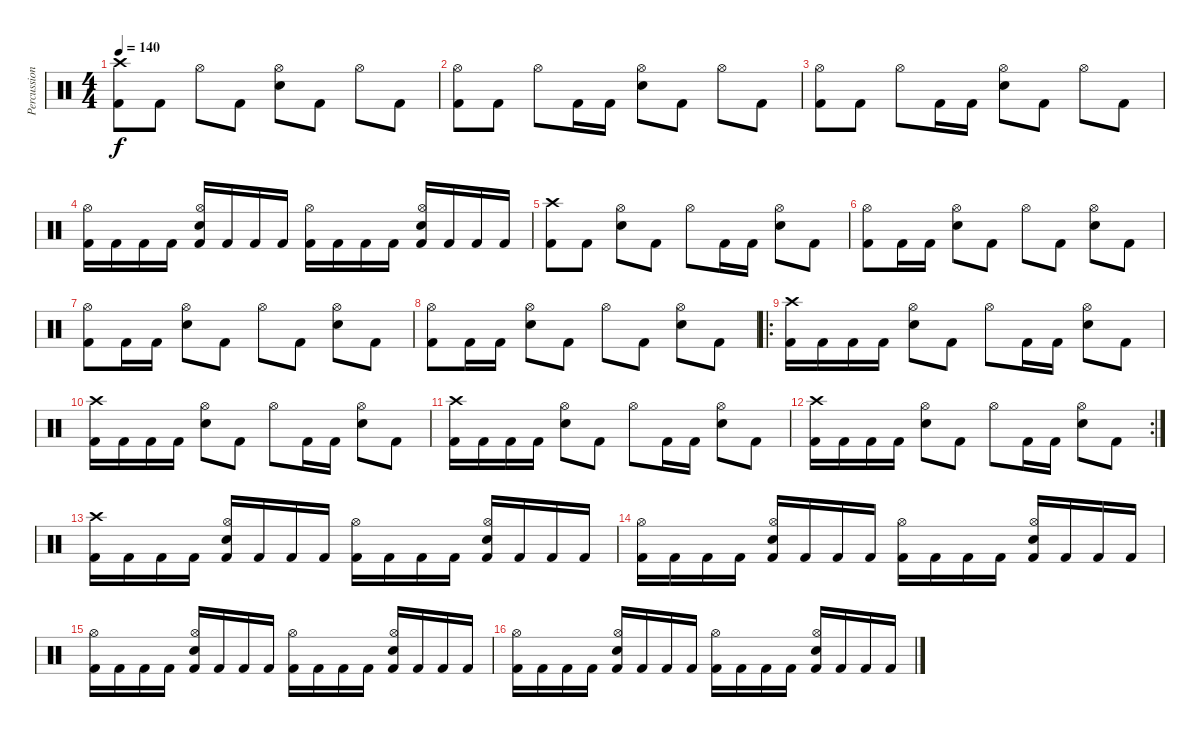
\track ("Percussion" "Percussion") {instrument percussion}
\staff {score}
\articulation defaults
\ts (4 4)
\tempo 140
\clef neutral
\ks c
("Crash high (hit)" "Kick (hit) 2").8{dy f} "Kick (hit) 2".8 "Hi-Hat (open)".8 "Kick (hit) 2".8 ("Hi-Hat (open)" "Electric Snare (hit)").8 "Kick (hit) 2".8 "Hi-Hat (open)".8 "Kick (hit) 2".8 |
("Hi-Hat (open)" "Kick (hit) 2").8 "Kick (hit) 2".8 "Hi-Hat (open)".8 "Kick (hit) 2".16 "Kick (hit) 2".16 ("Hi-Hat (open)" "Electric Snare (hit)").8 "Kick (hit) 2".8 "Hi-Hat (open)".8 "Kick (hit) 2".8 |
("Hi-Hat (open)" "Kick (hit) 2").8 "Kick (hit) 2".8 "Hi-Hat (open)".8 "Kick (hit) 2".16 "Kick (hit) 2".16 ("Hi-Hat (open)" "Electric Snare (hit)").8 "Kick (hit) 2".8 "Hi-Hat (open)".8 "Kick (hit) 2".8 |
("Hi-Hat (open)" "Kick (hit) 2").16 "Kick (hit) 2".16 "Kick (hit) 2".16 "Kick (hit) 2".16 ("Hi-Hat (open)" "Electric Snare (hit)" "Kick (hit) 2").16 "Kick (hit) 2".16 "Kick (hit) 2".16 "Kick (hit) 2".16 ("Hi-Hat (open)" "Kick (hit) 2").16 "Kick (hit) 2".16 "Kick (hit) 2".16 "Kick (hit) 2".16 ("Hi-Hat (open)" "Electric Snare (hit)" "Kick (hit) 2").16 "Kick (hit) 2".16 "Kick (hit) 2".16 "Kick (hit) 2".16 |
("Crash high (hit)" "Kick (hit) 2").8 "Kick (hit) 2".8 ("Hi-Hat (open)" "Electric Snare (hit)").8 "Kick (hit) 2".8 "Hi-Hat (open)".8 "Kick (hit) 2".16 "Kick (hit) 2".16 ("Hi-Hat (open)" "Electric Snare (hit)").8 "Kick (hit) 2".8 |
("Hi-Hat (open)" "Kick (hit) 2").8 "Kick (hit) 2".16 "Kick (hit) 2".16 ("Hi-Hat (open)" "Electric Snare (hit)").8 "Kick (hit) 2".8 "Hi-Hat (open)".8 "Kick (hit) 2".8 ("Hi-Hat (open)" "Electric Snare (hit)").8 "Kick (hit) 2".8 |
("Hi-Hat (open)" "Kick (hit) 2").8 "Kick (hit) 2".16 "Kick (hit) 2".16 ("Hi-Hat (open)" "Electric Snare (hit)").8 "Kick (hit) 2".8 "Hi-Hat (open)".8 "Kick (hit) 2".8 ("Hi-Hat (open)" "Electric Snare (hit)").8 "Kick (hit) 2".8 |
("Hi-Hat (open)" "Kick (hit) 2").8 "Kick (hit) 2".16 "Kick (hit) 2".16 ("Hi-Hat (open)" "Electric Snare (hit)").8 "Kick (hit) 2".8 "Hi-Hat (open)".8 "Kick (hit) 2".8 ("Hi-Hat (open)" "Electric Snare (hit)").8 "Kick (hit) 2".8 |
\ro
("Crash high (hit)" "Kick (hit) 2").16 "Kick (hit) 2".16 "Kick (hit) 2".16 "Kick (hit) 2".16 ("Hi-Hat (open)" "Electric Snare (hit)").8 "Kick (hit) 2".8 "Hi-Hat (open)".8 "Kick (hit) 2".16 "Kick (hit) 2".16 ("Hi-Hat (open)" "Electric Snare (hit)").8 "Kick (hit) 2".8 |
("Crash high (hit)" "Kick (hit) 2").16 "Kick (hit) 2".16 "Kick (hit) 2".16 "Kick (hit) 2".16 ("Hi-Hat (open)" "Electric Snare (hit)").8 "Kick (hit) 2".8 "Hi-Hat (open)".8 "Kick (hit) 2".16 "Kick (hit) 2".16 ("Hi-Hat (open)" "Electric Snare (hit)").8 "Kick (hit) 2".8 |
("Crash high (hit)" "Kick (hit) 2").16 "Kick (hit) 2".16 "Kick (hit) 2".16 "Kick (hit) 2".16 ("Hi-Hat (open)" "Electric Snare (hit)").8 "Kick (hit) 2".8 "Hi-Hat (open)".8 "Kick (hit) 2".16 "Kick (hit) 2".16 ("Hi-Hat (open)" "Electric Snare (hit)").8 "Kick (hit) 2".8 |
\rc 2
("Crash high (hit)" "Kick (hit) 2").16 "Kick (hit) 2".16 "Kick (hit) 2".16 "Kick (hit) 2".16 ("Hi-Hat (open)" "Electric Snare (hit)").8 "Kick (hit) 2".8 "Hi-Hat (open)".8 "Kick (hit) 2".16 "Kick (hit) 2".16 ("Hi-Hat (open)" "Electric Snare (hit)").8 "Kick (hit) 2".8 |
("Crash high (hit)" "Kick (hit) 2").16 "Kick (hit) 2".16 "Kick (hit) 2".16 "Kick (hit) 2".16 ("Hi-Hat (open)" "Electric Snare (hit)" "Kick (hit) 2").16 "Kick (hit) 2".16 "Kick (hit) 2".16 "Kick (hit) 2".16 ("Hi-Hat (open)" "Kick (hit) 2").16 "Kick (hit) 2".16 "Kick (hit) 2".16 "Kick (hit) 2".16 ("Hi-Hat (open)" "Electric Snare (hit)" "Kick (hit) 2").16 "Kick (hit) 2".16 "Kick (hit) 2".16 "Kick (hit) 2".16 |
("Hi-Hat (open)" "Kick (hit) 2").16 "Kick (hit) 2".16 "Kick (hit) 2".16 "Kick (hit) 2".16 ("Hi-Hat (open)" "Electric Snare (hit)" "Kick (hit) 2").16 "Kick (hit) 2".16 "Kick (hit) 2".16 "Kick (hit) 2".16 ("Hi-Hat (open)" "Kick (hit) 2").16 "Kick (hit) 2".16 "Kick (hit) 2".16 "Kick (hit) 2".16 ("Hi-Hat (open)" "Electric Snare (hit)" "Kick (hit) 2").16 "Kick (hit) 2".16 "Kick (hit) 2".16 "Kick (hit) 2".16 |
("Hi-Hat (open)" "Kick (hit) 2").16 "Kick (hit) 2".16 "Kick (hit) 2".16 "Kick (hit) 2".16 ("Hi-Hat (open)" "Electric Snare (hit)" "Kick (hit) 2").16 "Kick (hit) 2".16 "Kick (hit) 2".16 "Kick (hit) 2".16 ("Hi-Hat (open)" "Kick (hit) 2").16 "Kick (hit) 2".16 "Kick (hit) 2".16 "Kick (hit) 2".16 ("Hi-Hat (open)" "Electric Snare (hit)" "Kick (hit) 2").16 "Kick (hit) 2".16 "Kick (hit) 2".16 "Kick (hit) 2".16 |
("Hi-Hat (open)" "Kick (hit) 2").16 "Kick (hit) 2".16 "Kick (hit) 2".16 "Kick (hit) 2".16 ("Hi-Hat (open)" "Electric Snare (hit)" "Kick (hit) 2").16 "Kick (hit) 2".16 "Kick (hit) 2".16 "Kick (hit) 2".16 ("Hi-Hat (open)" "Kick (hit) 2").16 "Kick (hit) 2".16 "Kick (hit) 2".16 "Kick (hit) 2".16 ("Hi-Hat (open)" "Electric Snare (hit)" "Kick (hit) 2").16 "Kick (hit) 2".16 "Kick (hit) 2".16 "Kick (hit) 2".16
